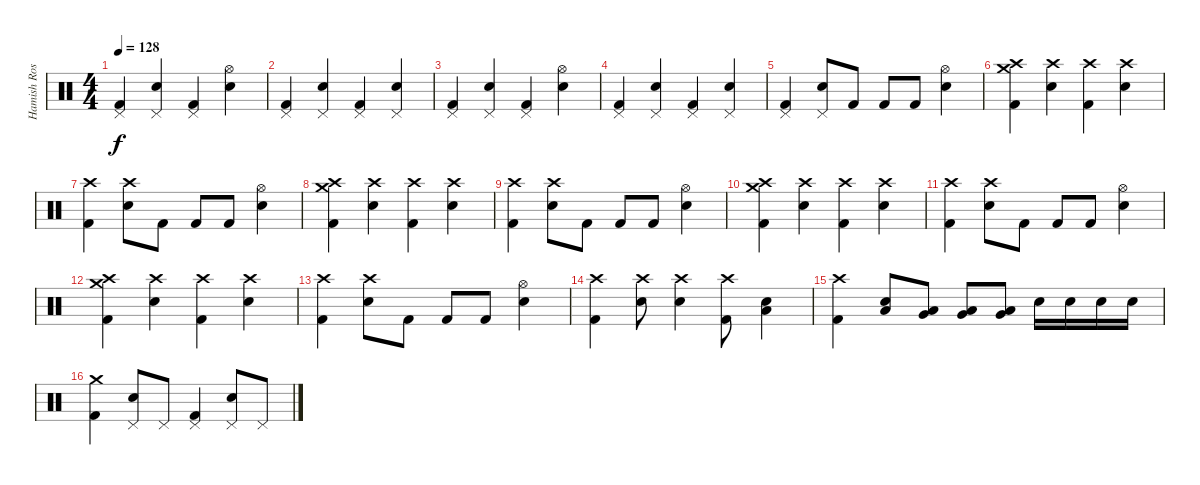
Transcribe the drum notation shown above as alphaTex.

\track ("Hamish Rosser" "Hamish Ros") {instrument percussion}
\staff {score}
\articulation defaults
\ts (4 4)
\tempo 128
\clef neutral
\ks c
("Pedal Hi-Hat (hit)" "Kick (hit) 2").4{dy f} ("Pedal Hi-Hat (hit)" "Snare (hit) 2").4 ("Pedal Hi-Hat (hit)" "Kick (hit) 2").4 ("Hi-Hat (open)" "Snare (hit) 2").4 |
("Pedal Hi-Hat (hit)" "Kick (hit) 2").4 ("Pedal Hi-Hat (hit)" "Snare (hit) 2").4 ("Pedal Hi-Hat (hit)" "Kick (hit) 2").4 ("Pedal Hi-Hat (hit)" "Snare (hit) 2").4 |
("Pedal Hi-Hat (hit)" "Kick (hit) 2").4 ("Pedal Hi-Hat (hit)" "Snare (hit) 2").4 ("Pedal Hi-Hat (hit)" "Kick (hit) 2").4 ("Hi-Hat (open)" "Snare (hit) 2").4 |
("Pedal Hi-Hat (hit)" "Kick (hit) 2").4 ("Pedal Hi-Hat (hit)" "Snare (hit) 2").4 ("Pedal Hi-Hat (hit)" "Kick (hit) 2").4 ("Pedal Hi-Hat (hit)" "Snare (hit) 2").4 |
("Pedal Hi-Hat (hit)" "Kick (hit) 2").4 ("Pedal Hi-Hat (hit)" "Snare (hit) 2").8 "Kick (hit) 2".8 "Kick (hit) 2".8 "Kick (hit) 2".8 ("Hi-Hat (open)" "Snare (hit) 2").4 |
("Crash high (hit)" "Crash medium (hit)" "Kick (hit) 2").4 ("Crash high (hit)" "Snare (hit) 2").4 ("Crash high (hit)" "Kick (hit) 2").4 ("Crash high (hit)" "Snare (hit) 2").4 |
("Crash high (hit)" "Kick (hit) 2").4 ("Crash high (hit)" "Snare (hit) 2").8 "Kick (hit) 2".8 "Kick (hit) 2".8 "Kick (hit) 2".8 ("Hi-Hat (open)" "Snare (hit) 2").4 |
("Crash high (hit)" "Crash medium (hit)" "Kick (hit) 2").4 ("Crash high (hit)" "Snare (hit) 2").4 ("Crash high (hit)" "Kick (hit) 2").4 ("Crash high (hit)" "Snare (hit) 2").4 |
("Crash high (hit)" "Kick (hit) 2").4 ("Crash high (hit)" "Snare (hit) 2").8 "Kick (hit) 2".8 "Kick (hit) 2".8 "Kick (hit) 2".8 ("Hi-Hat (open)" "Snare (hit) 2").4 |
("Crash high (hit)" "Crash medium (hit)" "Kick (hit) 2").4 ("Crash high (hit)" "Snare (hit) 2").4 ("Crash high (hit)" "Kick (hit) 2").4 ("Crash high (hit)" "Snare (hit) 2").4 |
("Crash high (hit)" "Kick (hit) 2").4 ("Crash high (hit)" "Snare (hit) 2").8 "Kick (hit) 2".8 "Kick (hit) 2".8 "Kick (hit) 2".8 ("Hi-Hat (open)" "Snare (hit) 2").4 |
("Crash high (hit)" "Crash medium (hit)" "Kick (hit) 2").4 ("Crash high (hit)" "Snare (hit) 2").4 ("Crash high (hit)" "Kick (hit) 2").4 ("Crash high (hit)" "Snare (hit) 2").4 |
("Crash high (hit)" "Kick (hit) 2").4 ("Crash high (hit)" "Snare (hit) 2").8 "Kick (hit) 2".8 "Kick (hit) 2".8 "Kick (hit) 2".8 ("Hi-Hat (open)" "Snare (hit) 2").4 |
("Crash high (hit)" "Kick (hit) 2").4 ("Crash high (hit)" "Snare (hit) 2").8 ("Crash high (hit)" "Snare (hit) 2").4 ("Crash high (hit)" "Kick (hit) 2").8 ("Snare (hit) 2" "Low Tom (hit)").4 |
("Crash high (hit)" "Kick (hit) 2").4 ("Snare (hit) 2" "Low Tom (hit)").8 ("Very Low Tom (hit)" "Low Tom (hit)").8 ("Very Low Tom (hit)" "Low Tom (hit)").8 ("Very Low Tom (hit)" "Low Tom (hit)").8 "Snare (hit) 2".16 "Snare (hit) 2".16 "Snare (hit) 2".16 "Snare (hit) 2".16 |
("Crash medium (hit)" "Kick (hit) 2").4 ("Pedal Hi-Hat (hit)" "Snare (hit) 2").8 "Pedal Hi-Hat (hit)".8 ("Pedal Hi-Hat (hit)" "Kick (hit) 2").4 ("Pedal Hi-Hat (hit)" "Snare (hit) 2").8 "Pedal Hi-Hat (hit)".8
